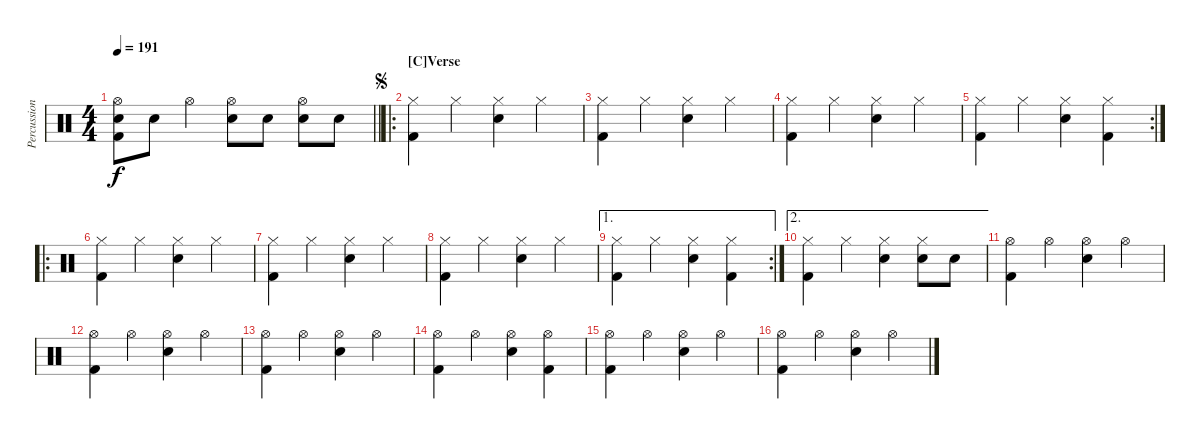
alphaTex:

\track ("Percussion" "Percussion") {instrument percussion}
\staff {score}
\articulation defaults
\ts (4 4)
\tempo 191
\clef neutral
\barLineRight lightlight
\ks c
("Hi-Hat (open)" "Snare (hit) 2" "Kick (hit) 2").8{dy f} "Snare (hit) 2".8 "Hi-Hat (open)".4 ("Hi-Hat (open)" "Snare (hit) 2").8 "Snare (hit) 2".8 ("Hi-Hat (open)" "Snare (hit) 2").8 "Snare (hit) 2".8 |
\ro
\section ("" "[C]Verse")
\jump segno
("Hi-Hat (closed)" "Kick (hit) 2").4 "Hi-Hat (closed)".4 ("Hi-Hat (closed)" "Snare (hit) 2").4 "Hi-Hat (closed)".4 |
("Hi-Hat (closed)" "Kick (hit) 2").4 "Hi-Hat (closed)".4 ("Hi-Hat (closed)" "Snare (hit) 2").4 "Hi-Hat (closed)".4 |
("Hi-Hat (closed)" "Kick (hit) 2").4 "Hi-Hat (closed)".4 ("Hi-Hat (closed)" "Snare (hit) 2").4 "Hi-Hat (closed)".4 |
\rc 2
("Hi-Hat (closed)" "Kick (hit) 2").4 "Hi-Hat (closed)".4 ("Hi-Hat (closed)" "Snare (hit) 2").4 ("Hi-Hat (closed)" "Kick (hit) 2").4 |
\ro
("Hi-Hat (closed)" "Kick (hit) 2").4 "Hi-Hat (closed)".4 ("Hi-Hat (closed)" "Snare (hit) 2").4 "Hi-Hat (closed)".4 |
("Hi-Hat (closed)" "Kick (hit) 2").4 "Hi-Hat (closed)".4 ("Hi-Hat (closed)" "Snare (hit) 2").4 "Hi-Hat (closed)".4 |
("Hi-Hat (closed)" "Kick (hit) 2").4 "Hi-Hat (closed)".4 ("Hi-Hat (closed)" "Snare (hit) 2").4 "Hi-Hat (closed)".4 |
\ae 1
\rc 2
("Hi-Hat (closed)" "Kick (hit) 2").4 "Hi-Hat (closed)".4 ("Hi-Hat (closed)" "Snare (hit) 2").4 ("Hi-Hat (closed)" "Kick (hit) 2").4 |
\ae 2
("Hi-Hat (closed)" "Kick (hit) 2").4 "Hi-Hat (closed)".4 ("Hi-Hat (closed)" "Snare (hit) 2").4 ("Hi-Hat (closed)" "Snare (hit) 2").8 "Snare (hit) 2".8 |
("Hi-Hat (open)" "Kick (hit) 2").4 "Hi-Hat (open)".4 ("Hi-Hat (open)" "Snare (hit) 2").4 "Hi-Hat (open)".4 |
("Hi-Hat (open)" "Kick (hit) 2").4 "Hi-Hat (open)".4 ("Hi-Hat (open)" "Snare (hit) 2").4 "Hi-Hat (open)".4 |
("Hi-Hat (open)" "Kick (hit) 2").4 "Hi-Hat (open)".4 ("Hi-Hat (open)" "Snare (hit) 2").4 "Hi-Hat (open)".4 |
("Hi-Hat (open)" "Kick (hit) 2").4 "Hi-Hat (open)".4 ("Hi-Hat (open)" "Snare (hit) 2").4 ("Hi-Hat (open)" "Kick (hit) 2").4 |
("Hi-Hat (open)" "Kick (hit) 2").4 "Hi-Hat (open)".4 ("Hi-Hat (open)" "Snare (hit) 2").4 "Hi-Hat (open)".4 |
("Hi-Hat (open)" "Kick (hit) 2").4 "Hi-Hat (open)".4 ("Hi-Hat (open)" "Snare (hit) 2").4 "Hi-Hat (open)".4
